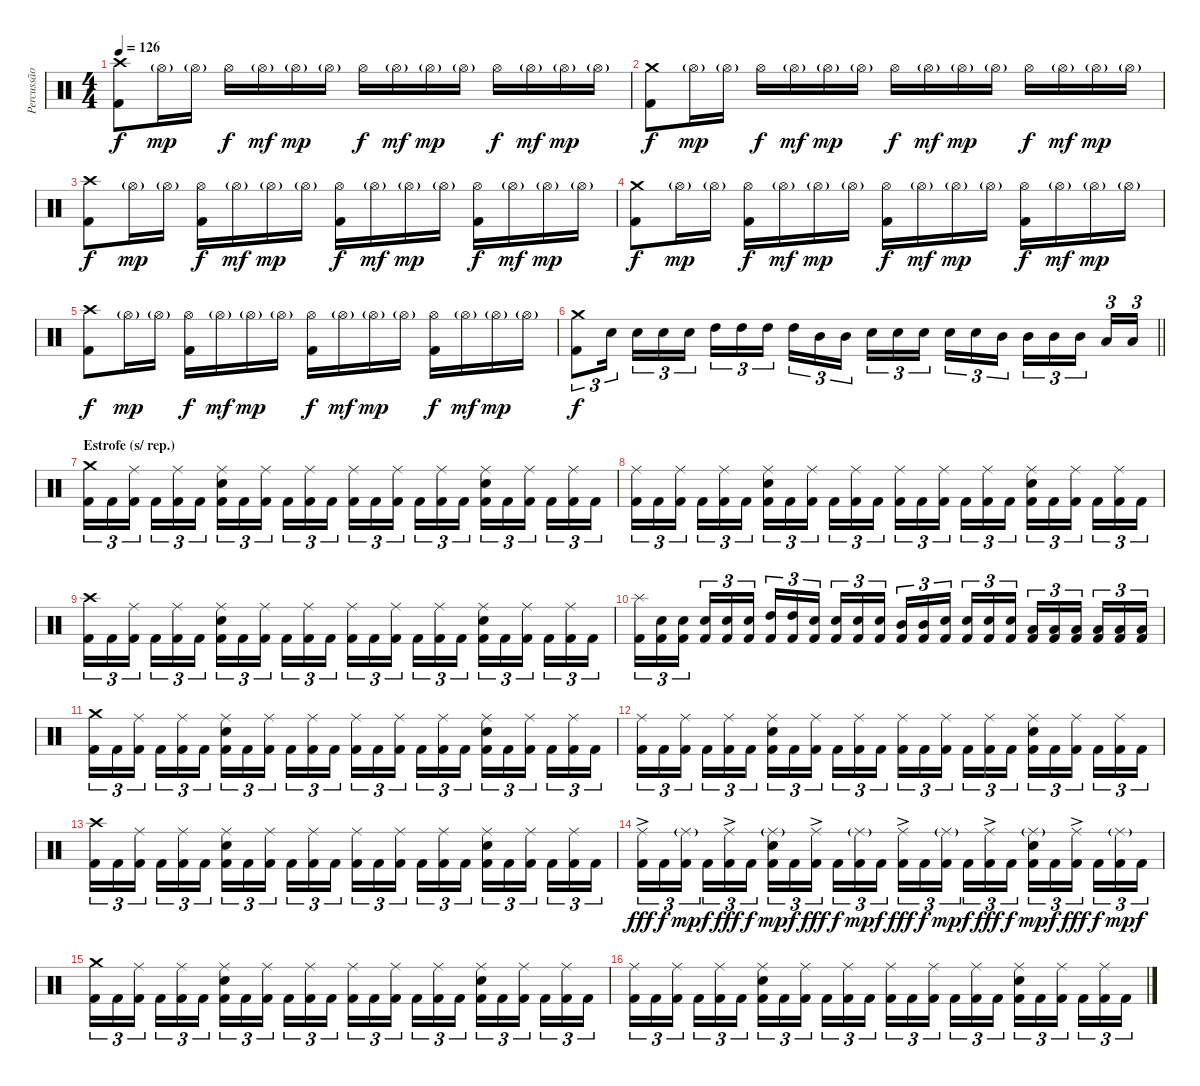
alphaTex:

\track ("Percussão" "Percussão") {instrument percussion}
\staff {score}
\articulation defaults
\ts (4 4)
\tempo 126
\clef neutral
\ks c
("Crash high (hit)" "Kick (hit) 2").8{dy f} "Hi-Hat (open)"{g}.16{dy mp} "Hi-Hat (open)"{g}.16 "Hi-Hat (open)".16{dy f} "Hi-Hat (open)"{g}.16{dy mf} "Hi-Hat (open)"{g}.16{dy mp} "Hi-Hat (open)"{g}.16 "Hi-Hat (open)".16{dy f} "Hi-Hat (open)"{g}.16{dy mf} "Hi-Hat (open)"{g}.16{dy mp} "Hi-Hat (open)"{g}.16 "Hi-Hat (open)".16{dy f} "Hi-Hat (open)"{g}.16{dy mf} "Hi-Hat (open)"{g}.16{dy mp} "Hi-Hat (open)"{g}.16 |
("Crash medium (hit)" "Kick (hit) 2").8{dy f} "Hi-Hat (open)"{g}.16{dy mp} "Hi-Hat (open)"{g}.16 "Hi-Hat (open)".16{dy f} "Hi-Hat (open)"{g}.16{dy mf} "Hi-Hat (open)"{g}.16{dy mp} "Hi-Hat (open)"{g}.16 "Hi-Hat (open)".16{dy f} "Hi-Hat (open)"{g}.16{dy mf} "Hi-Hat (open)"{g}.16{dy mp} "Hi-Hat (open)"{g}.16 "Hi-Hat (open)".16{dy f} "Hi-Hat (open)"{g}.16{dy mf} "Hi-Hat (open)"{g}.16{dy mp} "Hi-Hat (open)"{g}.16 |
("Crash high (hit)" "Kick (hit) 2").8{dy f} "Hi-Hat (open)"{g}.16{dy mp} "Hi-Hat (open)"{g}.16 ("Hi-Hat (open)" "Kick (hit) 2").16{dy f} "Hi-Hat (open)"{g}.16{dy mf} "Hi-Hat (open)"{g}.16{dy mp} "Hi-Hat (open)"{g}.16 ("Hi-Hat (open)" "Kick (hit) 2").16{dy f} "Hi-Hat (open)"{g}.16{dy mf} "Hi-Hat (open)"{g}.16{dy mp} "Hi-Hat (open)"{g}.16 ("Hi-Hat (open)" "Kick (hit) 2").16{dy f} "Hi-Hat (open)"{g}.16{dy mf} "Hi-Hat (open)"{g}.16{dy mp} "Hi-Hat (open)"{g}.16 |
("Crash medium (hit)" "Kick (hit) 2").8{dy f} "Hi-Hat (open)"{g}.16{dy mp} "Hi-Hat (open)"{g}.16 ("Hi-Hat (open)" "Kick (hit) 2").16{dy f} "Hi-Hat (open)"{g}.16{dy mf} "Hi-Hat (open)"{g}.16{dy mp} "Hi-Hat (open)"{g}.16 ("Hi-Hat (open)" "Kick (hit) 2").16{dy f} "Hi-Hat (open)"{g}.16{dy mf} "Hi-Hat (open)"{g}.16{dy mp} "Hi-Hat (open)"{g}.16 ("Hi-Hat (open)" "Kick (hit) 2").16{dy f} "Hi-Hat (open)"{g}.16{dy mf} "Hi-Hat (open)"{g}.16{dy mp} "Hi-Hat (open)"{g}.16 |
("Crash high (hit)" "Kick (hit) 2").8{dy f} "Hi-Hat (open)"{g}.16{dy mp} "Hi-Hat (open)"{g}.16 ("Hi-Hat (open)" "Kick (hit) 2").16{dy f} "Hi-Hat (open)"{g}.16{dy mf} "Hi-Hat (open)"{g}.16{dy mp} "Hi-Hat (open)"{g}.16 ("Hi-Hat (open)" "Kick (hit) 2").16{dy f} "Hi-Hat (open)"{g}.16{dy mf} "Hi-Hat (open)"{g}.16{dy mp} "Hi-Hat (open)"{g}.16 ("Hi-Hat (open)" "Kick (hit) 2").16{dy f} "Hi-Hat (open)"{g}.16{dy mf} "Hi-Hat (open)"{g}.16{dy mp} "Hi-Hat (open)"{g}.16 |
\barLineRight lightlight
("Crash medium (hit)" "Kick (hit) 2").8{tu (3 2) dy f} "Electric Snare (hit)".16{tu (3 2) beam splitsecondary} "Electric Snare (hit)".16{tu (3 2)} "Electric Snare (hit)".16{tu (3 2)} "Electric Snare (hit)".16{tu (3 2)} "High Tom (hit)".16{tu (3 2)} "High Tom (hit)".16{tu (3 2)} "High Tom (hit)".16{tu (3 2) beam splitsecondary} "High Tom (hit)".16{tu (3 2)} "Mid Tom (hit)".16{tu (3 2)} "Mid Tom (hit)".16{tu (3 2)} "Electric Snare (hit)".16{tu (3 2)} "Electric Snare (hit)".16{tu (3 2)} "Electric Snare (hit)".16{tu (3 2) beam splitsecondary} "Electric Snare (hit)".16{tu (3 2)} "Electric Snare (hit)".16{tu (3 2)} "Mid Tom (hit)".16{tu (3 2)} "Mid Tom (hit)".16{tu (3 2)} "Mid Tom (hit)".16{tu (3 2)} "Mid Tom (hit)".16{tu (3 2) beam splitsecondary} "Low Tom (hit)".16{tu (3 2)} "Low Tom (hit)".16{tu (3 2)} |
\section ("" "Estrofe (s/ rep.)")
("Crash medium (hit)" "Kick (hit) 2").16{tu (3 2)} "Kick (hit) 2".16{tu (3 2)} ("Ride (middle)" "Kick (hit) 2").16{tu (3 2) beam splitsecondary} "Kick (hit) 2".16{tu (3 2)} ("Ride (middle)" "Kick (hit) 2").16{tu (3 2)} "Kick (hit) 2".16{tu (3 2)} ("Ride (middle)" "Electric Snare (hit)" "Kick (hit) 2").16{tu (3 2)} "Kick (hit) 2".16{tu (3 2)} ("Ride (middle)" "Kick (hit) 2").16{tu (3 2) beam splitsecondary} "Kick (hit) 2".16{tu (3 2)} ("Ride (middle)" "Kick (hit) 2").16{tu (3 2)} "Kick (hit) 2".16{tu (3 2)} ("Ride (middle)" "Kick (hit) 2").16{tu (3 2)} "Kick (hit) 2".16{tu (3 2)} ("Ride (middle)" "Kick (hit) 2").16{tu (3 2) beam splitsecondary} "Kick (hit) 2".16{tu (3 2)} ("Ride (middle)" "Kick (hit) 2").16{tu (3 2)} "Kick (hit) 2".16{tu (3 2)} ("Ride (middle)" "Electric Snare (hit)" "Kick (hit) 2").16{tu (3 2)} "Kick (hit) 2".16{tu (3 2)} ("Ride (middle)" "Kick (hit) 2").16{tu (3 2) beam splitsecondary} "Kick (hit) 2".16{tu (3 2)} ("Ride (middle)" "Kick (hit) 2").16{tu (3 2)} "Kick (hit) 2".16{tu (3 2)} |
("Ride (middle)" "Kick (hit) 2").16{tu (3 2)} "Kick (hit) 2".16{tu (3 2)} ("Ride (middle)" "Kick (hit) 2").16{tu (3 2) beam splitsecondary} "Kick (hit) 2".16{tu (3 2)} ("Ride (middle)" "Kick (hit) 2").16{tu (3 2)} "Kick (hit) 2".16{tu (3 2)} ("Ride (middle)" "Electric Snare (hit)" "Kick (hit) 2").16{tu (3 2)} "Kick (hit) 2".16{tu (3 2)} ("Ride (middle)" "Kick (hit) 2").16{tu (3 2) beam splitsecondary} "Kick (hit) 2".16{tu (3 2)} ("Ride (middle)" "Kick (hit) 2").16{tu (3 2)} "Kick (hit) 2".16{tu (3 2)} ("Ride (middle)" "Kick (hit) 2").16{tu (3 2)} "Kick (hit) 2".16{tu (3 2)} ("Ride (middle)" "Kick (hit) 2").16{tu (3 2) beam splitsecondary} "Kick (hit) 2".16{tu (3 2)} ("Ride (middle)" "Kick (hit) 2").16{tu (3 2)} "Kick (hit) 2".16{tu (3 2)} ("Ride (middle)" "Electric Snare (hit)" "Kick (hit) 2").16{tu (3 2)} "Kick (hit) 2".16{tu (3 2)} ("Ride (middle)" "Kick (hit) 2").16{tu (3 2) beam splitsecondary} "Kick (hit) 2".16{tu (3 2)} ("Ride (middle)" "Kick (hit) 2").16{tu (3 2)} "Kick (hit) 2".16{tu (3 2)} |
("Crash high (hit)" "Kick (hit) 2").16{tu (3 2)} "Kick (hit) 2".16{tu (3 2)} ("Ride (middle)" "Kick (hit) 2").16{tu (3 2) beam splitsecondary} "Kick (hit) 2".16{tu (3 2)} ("Ride (middle)" "Kick (hit) 2").16{tu (3 2)} "Kick (hit) 2".16{tu (3 2)} ("Ride (middle)" "Electric Snare (hit)" "Kick (hit) 2").16{tu (3 2)} "Kick (hit) 2".16{tu (3 2)} ("Ride (middle)" "Kick (hit) 2").16{tu (3 2) beam splitsecondary} "Kick (hit) 2".16{tu (3 2)} ("Ride (middle)" "Kick (hit) 2").16{tu (3 2)} "Kick (hit) 2".16{tu (3 2)} ("Ride (middle)" "Kick (hit) 2").16{tu (3 2)} "Kick (hit) 2".16{tu (3 2)} ("Ride (middle)" "Kick (hit) 2").16{tu (3 2) beam splitsecondary} "Kick (hit) 2".16{tu (3 2)} ("Ride (middle)" "Kick (hit) 2").16{tu (3 2)} "Kick (hit) 2".16{tu (3 2)} ("Ride (middle)" "Electric Snare (hit)" "Kick (hit) 2").16{tu (3 2)} "Kick (hit) 2".16{tu (3 2)} ("Ride (middle)" "Kick (hit) 2").16{tu (3 2) beam splitsecondary} "Kick (hit) 2".16{tu (3 2)} ("Ride (middle)" "Kick (hit) 2").16{tu (3 2)} "Kick (hit) 2".16{tu (3 2)} |
("Splash (hit)" "Kick (hit) 2").16{tu (3 2)} ("Electric Snare (hit)" "Kick (hit) 2").16{tu (3 2)} ("Electric Snare (hit)" "Kick (hit) 2").16{tu (3 2) beam splitsecondary} ("Electric Snare (hit)" "Kick (hit) 2").16{tu (3 2)} ("Electric Snare (hit)" "Kick (hit) 2").16{tu (3 2)} ("Electric Snare (hit)" "Kick (hit) 2").16{tu (3 2)} ("High Tom (hit)" "Kick (hit) 2").16{tu (3 2)} ("High Tom (hit)" "Kick (hit) 2").16{tu (3 2)} ("Electric Snare (hit)" "Kick (hit) 2").16{tu (3 2) beam splitsecondary} ("Electric Snare (hit)" "Kick (hit) 2").16{tu (3 2)} ("Electric Snare (hit)" "Kick (hit) 2").16{tu (3 2)} ("Electric Snare (hit)" "Kick (hit) 2").16{tu (3 2)} ("Mid Tom (hit)" "Kick (hit) 2").16{tu (3 2)} ("Mid Tom (hit)" "Kick (hit) 2").16{tu (3 2)} ("Electric Snare (hit)" "Kick (hit) 2").16{tu (3 2) beam splitsecondary} ("Electric Snare (hit)" "Kick (hit) 2").16{tu (3 2)} ("Electric Snare (hit)" "Kick (hit) 2").16{tu (3 2)} ("Electric Snare (hit)" "Kick (hit) 2").16{tu (3 2)} ("Low Tom (hit)" "Kick (hit) 2").16{tu (3 2)} ("Low Tom (hit)" "Kick (hit) 2").16{tu (3 2)} ("Low Tom (hit)" "Kick (hit) 2").16{tu (3 2) beam splitsecondary} ("Low Tom (hit)" "Kick (hit) 2").16{tu (3 2)} ("Low Tom (hit)" "Kick (hit) 2").16{tu (3 2)} ("Low Tom (hit)" "Kick (hit) 2").16{tu (3 2)} |
("Crash medium (hit)" "Kick (hit) 2").16{tu (3 2)} "Kick (hit) 2".16{tu (3 2)} ("Ride (middle)" "Kick (hit) 2").16{tu (3 2) beam splitsecondary} "Kick (hit) 2".16{tu (3 2)} ("Ride (middle)" "Kick (hit) 2").16{tu (3 2)} "Kick (hit) 2".16{tu (3 2)} ("Ride (middle)" "Electric Snare (hit)" "Kick (hit) 2").16{tu (3 2)} "Kick (hit) 2".16{tu (3 2)} ("Ride (middle)" "Kick (hit) 2").16{tu (3 2) beam splitsecondary} "Kick (hit) 2".16{tu (3 2)} ("Ride (middle)" "Kick (hit) 2").16{tu (3 2)} "Kick (hit) 2".16{tu (3 2)} ("Ride (middle)" "Kick (hit) 2").16{tu (3 2)} "Kick (hit) 2".16{tu (3 2)} ("Ride (middle)" "Kick (hit) 2").16{tu (3 2) beam splitsecondary} "Kick (hit) 2".16{tu (3 2)} ("Ride (middle)" "Kick (hit) 2").16{tu (3 2)} "Kick (hit) 2".16{tu (3 2)} ("Ride (middle)" "Electric Snare (hit)" "Kick (hit) 2").16{tu (3 2)} "Kick (hit) 2".16{tu (3 2)} ("Ride (middle)" "Kick (hit) 2").16{tu (3 2) beam splitsecondary} "Kick (hit) 2".16{tu (3 2)} ("Ride (middle)" "Kick (hit) 2").16{tu (3 2)} "Kick (hit) 2".16{tu (3 2)} |
("Ride (middle)" "Kick (hit) 2").16{tu (3 2)} "Kick (hit) 2".16{tu (3 2)} ("Ride (middle)" "Kick (hit) 2").16{tu (3 2) beam splitsecondary} "Kick (hit) 2".16{tu (3 2)} ("Ride (middle)" "Kick (hit) 2").16{tu (3 2)} "Kick (hit) 2".16{tu (3 2)} ("Ride (middle)" "Electric Snare (hit)" "Kick (hit) 2").16{tu (3 2)} "Kick (hit) 2".16{tu (3 2)} ("Ride (middle)" "Kick (hit) 2").16{tu (3 2) beam splitsecondary} "Kick (hit) 2".16{tu (3 2)} ("Ride (middle)" "Kick (hit) 2").16{tu (3 2)} "Kick (hit) 2".16{tu (3 2)} ("Ride (middle)" "Kick (hit) 2").16{tu (3 2)} "Kick (hit) 2".16{tu (3 2)} ("Ride (middle)" "Kick (hit) 2").16{tu (3 2) beam splitsecondary} "Kick (hit) 2".16{tu (3 2)} ("Ride (middle)" "Kick (hit) 2").16{tu (3 2)} "Kick (hit) 2".16{tu (3 2)} ("Ride (middle)" "Electric Snare (hit)" "Kick (hit) 2").16{tu (3 2)} "Kick (hit) 2".16{tu (3 2)} ("Ride (middle)" "Kick (hit) 2").16{tu (3 2) beam splitsecondary} "Kick (hit) 2".16{tu (3 2)} ("Ride (middle)" "Kick (hit) 2").16{tu (3 2)} "Kick (hit) 2".16{tu (3 2)} |
("Crash high (hit)" "Kick (hit) 2").16{tu (3 2)} "Kick (hit) 2".16{tu (3 2)} ("Ride (middle)" "Kick (hit) 2").16{tu (3 2) beam splitsecondary} "Kick (hit) 2".16{tu (3 2)} ("Ride (middle)" "Kick (hit) 2").16{tu (3 2)} "Kick (hit) 2".16{tu (3 2)} ("Ride (middle)" "Electric Snare (hit)" "Kick (hit) 2").16{tu (3 2)} "Kick (hit) 2".16{tu (3 2)} ("Ride (middle)" "Kick (hit) 2").16{tu (3 2) beam splitsecondary} "Kick (hit) 2".16{tu (3 2)} ("Ride (middle)" "Kick (hit) 2").16{tu (3 2)} "Kick (hit) 2".16{tu (3 2)} ("Ride (middle)" "Kick (hit) 2").16{tu (3 2)} "Kick (hit) 2".16{tu (3 2)} ("Ride (middle)" "Kick (hit) 2").16{tu (3 2) beam splitsecondary} "Kick (hit) 2".16{tu (3 2)} ("Ride (middle)" "Kick (hit) 2").16{tu (3 2)} "Kick (hit) 2".16{tu (3 2)} ("Ride (middle)" "Electric Snare (hit)" "Kick (hit) 2").16{tu (3 2)} "Kick (hit) 2".16{tu (3 2)} ("Ride (middle)" "Kick (hit) 2").16{tu (3 2) beam splitsecondary} "Kick (hit) 2".16{tu (3 2)} ("Ride (middle)" "Kick (hit) 2").16{tu (3 2)} "Kick (hit) 2".16{tu (3 2)} |
("Ride (middle)"{ac} "Kick (hit) 2").16{tu (3 2) dy fff} "Kick (hit) 2".16{tu (3 2) dy f} ("Ride (middle)"{g} "Kick (hit) 2").16{tu (3 2) dy mp beam splitsecondary} "Kick (hit) 2".16{tu (3 2) dy f} ("Ride (middle)"{ac} "Kick (hit) 2").16{tu (3 2) dy fff} "Kick (hit) 2".16{tu (3 2) dy f} ("Ride (middle)"{g} "Electric Snare (hit)" "Kick (hit) 2").16{tu (3 2) dy mp} "Kick (hit) 2".16{tu (3 2) dy f} ("Ride (middle)"{ac} "Kick (hit) 2").16{tu (3 2) dy fff beam splitsecondary} "Kick (hit) 2".16{tu (3 2) dy f} ("Ride (middle)"{g} "Kick (hit) 2").16{tu (3 2) dy mp} "Kick (hit) 2".16{tu (3 2) dy f} ("Ride (middle)"{ac} "Kick (hit) 2").16{tu (3 2) dy fff} "Kick (hit) 2".16{tu (3 2) dy f} ("Ride (middle)"{g} "Kick (hit) 2").16{tu (3 2) dy mp beam splitsecondary} "Kick (hit) 2".16{tu (3 2) dy f} ("Ride (middle)"{ac} "Kick (hit) 2").16{tu (3 2) dy fff} "Kick (hit) 2".16{tu (3 2) dy f} ("Ride (middle)"{g} "Electric Snare (hit)" "Kick (hit) 2").16{tu (3 2) dy mp} "Kick (hit) 2".16{tu (3 2) dy f} ("Ride (middle)"{ac} "Kick (hit) 2").16{tu (3 2) dy fff beam splitsecondary} "Kick (hit) 2".16{tu (3 2) dy f} ("Ride (middle)"{g} "Kick (hit) 2").16{tu (3 2) dy mp} "Kick (hit) 2".16{tu (3 2) dy f} |
("Crash medium (hit)" "Kick (hit) 2").16{tu (3 2)} "Kick (hit) 2".16{tu (3 2)} ("Ride (middle)" "Kick (hit) 2").16{tu (3 2) beam splitsecondary} "Kick (hit) 2".16{tu (3 2)} ("Ride (middle)" "Kick (hit) 2").16{tu (3 2)} "Kick (hit) 2".16{tu (3 2)} ("Ride (middle)" "Electric Snare (hit)" "Kick (hit) 2").16{tu (3 2)} "Kick (hit) 2".16{tu (3 2)} ("Ride (middle)" "Kick (hit) 2").16{tu (3 2) beam splitsecondary} "Kick (hit) 2".16{tu (3 2)} ("Ride (middle)" "Kick (hit) 2").16{tu (3 2)} "Kick (hit) 2".16{tu (3 2)} ("Ride (middle)" "Kick (hit) 2").16{tu (3 2)} "Kick (hit) 2".16{tu (3 2)} ("Ride (middle)" "Kick (hit) 2").16{tu (3 2) beam splitsecondary} "Kick (hit) 2".16{tu (3 2)} ("Ride (middle)" "Kick (hit) 2").16{tu (3 2)} "Kick (hit) 2".16{tu (3 2)} ("Ride (middle)" "Electric Snare (hit)" "Kick (hit) 2").16{tu (3 2)} "Kick (hit) 2".16{tu (3 2)} ("Ride (middle)" "Kick (hit) 2").16{tu (3 2) beam splitsecondary} "Kick (hit) 2".16{tu (3 2)} ("Ride (middle)" "Kick (hit) 2").16{tu (3 2)} "Kick (hit) 2".16{tu (3 2)} |
("Ride (middle)" "Kick (hit) 2").16{tu (3 2)} "Kick (hit) 2".16{tu (3 2)} ("Ride (middle)" "Kick (hit) 2").16{tu (3 2) beam splitsecondary} "Kick (hit) 2".16{tu (3 2)} ("Ride (middle)" "Kick (hit) 2").16{tu (3 2)} "Kick (hit) 2".16{tu (3 2)} ("Ride (middle)" "Electric Snare (hit)" "Kick (hit) 2").16{tu (3 2)} "Kick (hit) 2".16{tu (3 2)} ("Ride (middle)" "Kick (hit) 2").16{tu (3 2) beam splitsecondary} "Kick (hit) 2".16{tu (3 2)} ("Ride (middle)" "Kick (hit) 2").16{tu (3 2)} "Kick (hit) 2".16{tu (3 2)} ("Ride (middle)" "Kick (hit) 2").16{tu (3 2)} "Kick (hit) 2".16{tu (3 2)} ("Ride (middle)" "Kick (hit) 2").16{tu (3 2) beam splitsecondary} "Kick (hit) 2".16{tu (3 2)} ("Ride (middle)" "Kick (hit) 2").16{tu (3 2)} "Kick (hit) 2".16{tu (3 2)} ("Ride (middle)" "Electric Snare (hit)" "Kick (hit) 2").16{tu (3 2)} "Kick (hit) 2".16{tu (3 2)} ("Ride (middle)" "Kick (hit) 2").16{tu (3 2) beam splitsecondary} "Kick (hit) 2".16{tu (3 2)} ("Ride (middle)" "Kick (hit) 2").16{tu (3 2)} "Kick (hit) 2".16{tu (3 2)}
